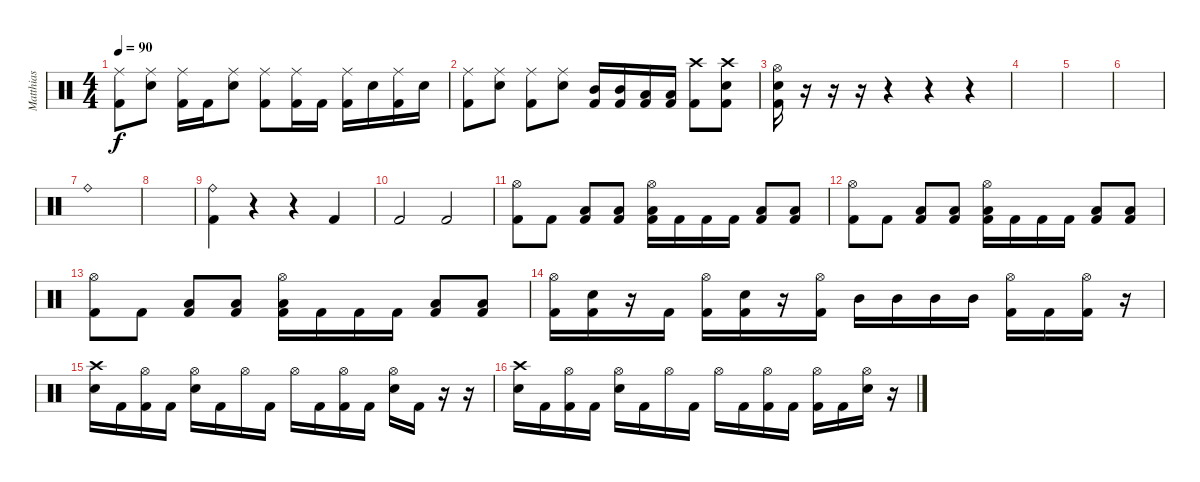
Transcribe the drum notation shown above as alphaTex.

\track ("Matthias" "Matthias") {instrument percussion}
\staff {score}
\articulation defaults
\ts (4 4)
\tempo 90
\clef neutral
\ks c
("Kick (hit) 2" "Ride (middle)").8{dy f} ("Snare (hit) 2" "Ride (middle)").8 ("Kick (hit) 2" "Ride (middle)").16 "Kick (hit) 2".16 ("Snare (hit) 2" "Ride (middle)").8 ("Kick (hit) 2" "Ride (middle)").8 ("Kick (hit) 2" "Ride (middle)").16 "Kick (hit) 2".16 ("Kick (hit) 2" "Ride (middle)").16 "Snare (hit) 2".16 ("Kick (hit) 2" "Ride (middle)").16 "Snare (hit) 2".16 |
("Kick (hit) 2" "Ride (middle)").8 ("Snare (hit) 2" "Ride (middle)").8 ("Kick (hit) 2" "Ride (middle)").8 ("Snare (hit) 2" "Ride (middle)").8 ("Kick (hit) 2" "Mid Tom (hit)").16 ("Kick (hit) 2" "Mid Tom (hit)").16 ("Kick (hit) 2" "Low Tom (hit)").16 ("Kick (hit) 2" "Low Tom (hit)").16 ("Kick (hit) 2" "Crash high (hit)").8 ("Kick (hit) 2" "Snare (hit) 2" "Crash high (hit)").8 |
("Kick (hit) 2" "Snare (hit) 2" "Hi-Hat (open)").16 r.16 r.16 r.16 r.4 r.4 r.4 |
|
|
|
"Ride (bell)".1 |
|
("Kick (hit) 2" "Ride (bell)").4 r.4 r.4 "Kick (hit) 2".4 |
"Kick (hit) 2".2 "Kick (hit) 2".2 |
("Kick (hit) 2" "Hi-Hat (open)").8 "Kick (hit) 2".8 ("Kick (hit) 2" "Low Tom (hit)").8 ("Kick (hit) 2" "Low Tom (hit)").8 ("Kick (hit) 2" "Low Tom (hit)" "Hi-Hat (open)").16 "Kick (hit) 2".16 "Kick (hit) 2".16 "Kick (hit) 2".16 ("Kick (hit) 2" "Low Tom (hit)").8 ("Kick (hit) 2" "Low Tom (hit)").8 |
("Kick (hit) 2" "Hi-Hat (open)").8 "Kick (hit) 2".8 ("Kick (hit) 2" "Low Tom (hit)").8 ("Kick (hit) 2" "Low Tom (hit)").8 ("Kick (hit) 2" "Low Tom (hit)" "Hi-Hat (open)").16 "Kick (hit) 2".16 "Kick (hit) 2".16 "Kick (hit) 2".16 ("Kick (hit) 2" "Low Tom (hit)").8 ("Kick (hit) 2" "Low Tom (hit)").8 |
("Kick (hit) 2" "Hi-Hat (open)").8 "Kick (hit) 2".8 ("Kick (hit) 2" "Low Tom (hit)").8 ("Kick (hit) 2" "Low Tom (hit)").8 ("Kick (hit) 2" "Low Tom (hit)" "Hi-Hat (open)").16 "Kick (hit) 2".16 "Kick (hit) 2".16 "Kick (hit) 2".16 ("Kick (hit) 2" "Low Tom (hit)").8 ("Kick (hit) 2" "Low Tom (hit)").8 |
("Kick (hit) 2" "Hi-Hat (open)").16 ("Kick (hit) 2" "Snare (hit) 2").16 r.16 "Kick (hit) 2".16 ("Kick (hit) 2" "Hi-Hat (open)").16 ("Kick (hit) 2" "Snare (hit) 2").16 r.16 ("Kick (hit) 2" "Hi-Hat (open)").16 "Mid Tom (hit)".16 "Mid Tom (hit)".16 "Mid Tom (hit)".16 "Mid Tom (hit)".16 ("Kick (hit) 2" "Hi-Hat (open)").16 "Kick (hit) 2".16 ("Kick (hit) 2" "Hi-Hat (open)").16 r.16 |
("Snare (hit) 2" "Crash high (hit)").16 "Kick (hit) 2".16 ("Kick (hit) 2" "Hi-Hat (open)").16 "Kick (hit) 2".16 ("Snare (hit) 2" "Hi-Hat (open)").16 "Kick (hit) 2".16 "Hi-Hat (open)".16 "Kick (hit) 2".16 "Hi-Hat (open)".16 "Kick (hit) 2".16 ("Kick (hit) 2" "Hi-Hat (open)").16 "Kick (hit) 2".16 ("Snare (hit) 2" "Hi-Hat (open)").16 "Kick (hit) 2".16 r.16 r.16 |
("Snare (hit) 2" "Crash high (hit)").16 "Kick (hit) 2".16 ("Kick (hit) 2" "Hi-Hat (open)").16 "Kick (hit) 2".16 ("Snare (hit) 2" "Hi-Hat (open)").16 "Kick (hit) 2".16 "Hi-Hat (open)".16 "Kick (hit) 2".16 "Hi-Hat (open)".16 "Kick (hit) 2".16 ("Kick (hit) 2" "Hi-Hat (open)").16 "Kick (hit) 2".16 ("Kick (hit) 2" "Hi-Hat (open)").16 "Kick (hit) 2".16 ("Snare (hit) 2" "Hi-Hat (open)").16 r.16
